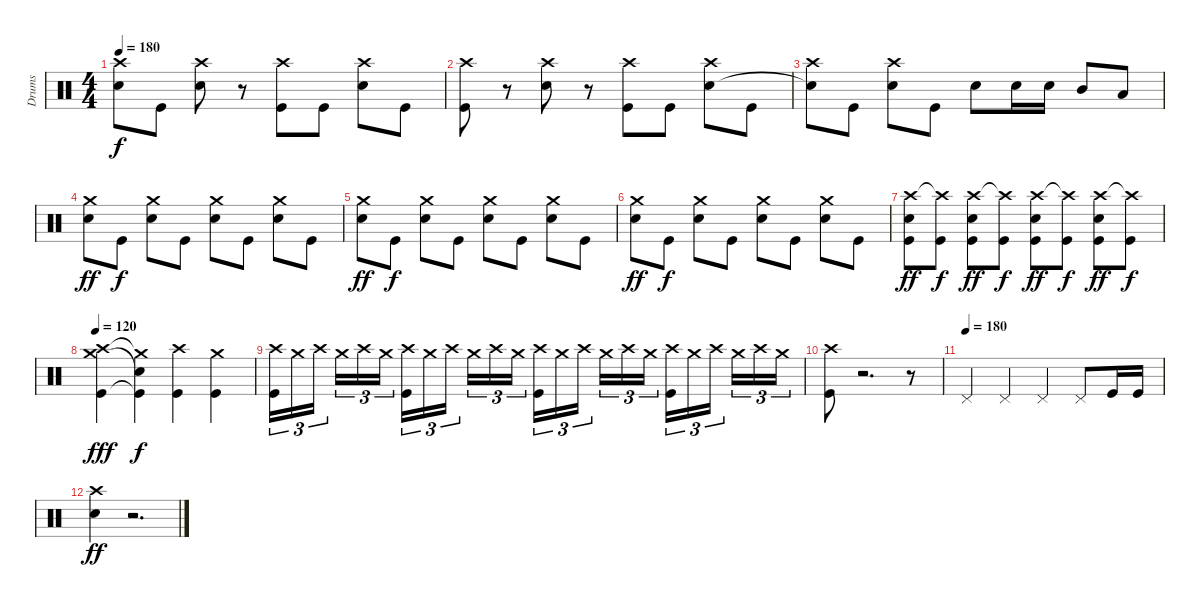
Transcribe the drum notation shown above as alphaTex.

\track ("Drums" "Drums") {instrument percussion}
\staff {score}
\articulation defaults
\ts (4 4)
\tempo 180
\clef neutral
\ks c
("Crash high (hit)" "Snare (hit)"{t}).8{dy f} "Kick (hit)".8 ("Crash high (hit)" "Snare (hit) 2").8 r.8 ("Crash high (hit)" "Kick (hit)").8 "Kick (hit)".8 ("Crash high (hit)" "Snare (hit) 2").8 "Kick (hit)".8 |
("Crash high (hit)" "Kick (hit)").8 r.8 ("Crash high (hit)" "Snare (hit) 2").8 r.8 ("Crash high (hit)" "Kick (hit)").8 "Kick (hit)".8 ("Crash high (hit)" "Snare (hit) 2").8 "Kick (hit)".8 |
("Crash high (hit)" "Snare (hit)"{t}).8 "Kick (hit)".8 ("Crash high (hit)" "Snare (hit) 2").8 "Kick (hit)".8 "Snare (hit) 2".8 "Snare (hit) 2".16 "Snare (hit) 2".16 "Mid Tom (hit)".8 "Low Tom (hit)".8 |
("Crash medium (hit)" "Snare (hit) 2").8{dy ff} "Kick (hit)".8{dy f} ("Crash medium (hit)" "Snare (hit) 2").8 "Kick (hit)".8 ("Crash medium (hit)" "Snare (hit) 2").8 "Kick (hit)".8 ("Crash medium (hit)" "Snare (hit) 2").8 "Kick (hit)".8 |
("Crash medium (hit)" "Snare (hit) 2").8{dy ff} "Kick (hit)".8{dy f} ("Crash medium (hit)" "Snare (hit) 2").8 "Kick (hit)".8 ("Crash medium (hit)" "Snare (hit) 2").8 "Kick (hit)".8 ("Crash medium (hit)" "Snare (hit) 2").8 "Kick (hit)".8 |
("Crash medium (hit)" "Snare (hit) 2").8{dy ff} "Kick (hit)".8{dy f} ("Crash medium (hit)" "Snare (hit) 2").8 "Kick (hit)".8 ("Crash medium (hit)" "Snare (hit) 2").8 "Kick (hit)".8 ("Crash medium (hit)" "Snare (hit) 2").8 "Kick (hit)".8 |
("Crash high (hit)" "Snare (hit) 2" "Kick (hit)").8{dy ff} ("Crash high (hit)"{t} "Kick (hit)").8{dy f} ("Crash high (hit)" "Snare (hit) 2" "Kick (hit)").8{dy ff} ("Crash high (hit)"{t} "Kick (hit)").8{dy f} ("Crash high (hit)" "Snare (hit) 2" "Kick (hit)").8{dy ff} ("Crash high (hit)"{t} "Kick (hit)").8{dy f} ("Crash high (hit)" "Snare (hit) 2" "Kick (hit)").8{dy ff} ("Crash high (hit)"{t} "Kick (hit)").8{dy f} |
\tempo 120
("Crash high (hit)" "Crash medium (hit)" "Kick (hit)").4{dy fff} ("Crash medium (hit)"{t} "Snare (hit)"{t} "Kick (hit)"{t}).4{dy f} ("Crash high (hit)" "Kick (hit)").4 ("Crash medium (hit)" "Kick (hit)").4 |
("Crash high (hit)" "Kick (hit)").16{tu (3 2)} "Crash medium (hit)".16{tu (3 2)} "Crash high (hit)".16{tu (3 2)} "Crash medium (hit)".16{tu (3 2)} "Crash high (hit)".16{tu (3 2)} "Crash medium (hit)".16{tu (3 2)} ("Crash high (hit)" "Kick (hit)").16{tu (3 2)} "Crash medium (hit)".16{tu (3 2)} "Crash high (hit)".16{tu (3 2)} "Crash medium (hit)".16{tu (3 2)} "Crash high (hit)".16{tu (3 2)} "Crash medium (hit)".16{tu (3 2)} ("Crash high (hit)" "Kick (hit)").16{tu (3 2)} "Crash medium (hit)".16{tu (3 2)} "Crash high (hit)".16{tu (3 2)} "Crash medium (hit)".16{tu (3 2)} "Crash high (hit)".16{tu (3 2)} "Crash medium (hit)".16{tu (3 2)} ("Crash high (hit)" "Kick (hit)").16{tu (3 2)} "Crash medium (hit)".16{tu (3 2)} "Crash high (hit)".16{tu (3 2)} "Crash medium (hit)".16{tu (3 2)} "Crash high (hit)".16{tu (3 2)} "Crash medium (hit)".16{tu (3 2)} |
("Crash high (hit)" "Kick (hit)").8 r.2{d} r.8 |
\tempo (180)
"Pedal Hi-Hat (hit)".4 "Pedal Hi-Hat (hit)".4 "Pedal Hi-Hat (hit)".4 "Pedal Hi-Hat (hit)".8 "Kick (hit)".16 "Kick (hit)".16 |
("Crash high (hit)" "Snare (hit) 2").4{dy ff} r.2{d}
